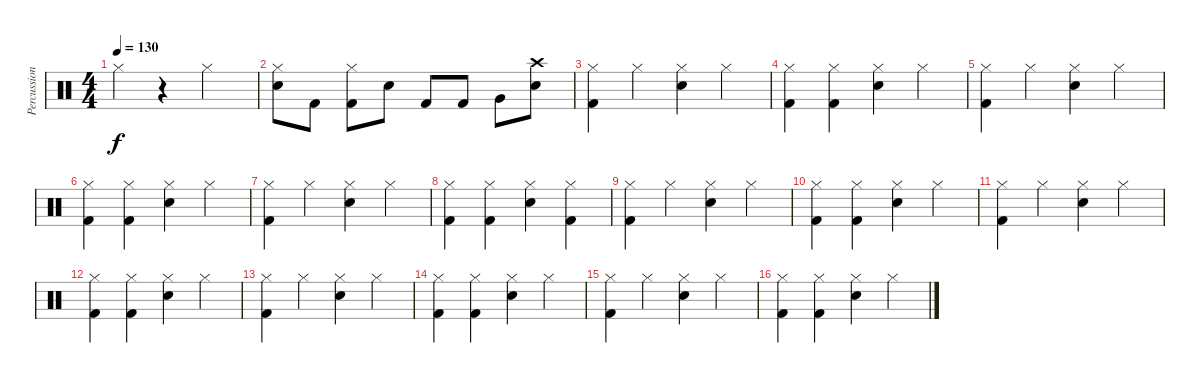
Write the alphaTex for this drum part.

\track ("Percussion" "Percussion") {instrument percussion}
\staff {score}
\articulation defaults
\ts (4 4)
\tempo 130
\clef neutral
\ks c "Hi-Hat (closed)".4{dy f}
r.4 "Hi-Hat (closed)".2 |
("Snare (hit) 2" "Hi-Hat (closed)").8 "Kick (hit) 2".8 ("Hi-Hat (closed)" "Kick (hit) 2").8 "Snare (hit) 2".8 "Kick (hit) 2".8 "Kick (hit) 2".8 "Very Low Tom (hit)".8 ("Snare (hit) 2" "Crash high (hit)").8 |
("Hi-Hat (closed)" "Kick (hit) 2").4 "Hi-Hat (closed)".4 ("Snare (hit) 2" "Hi-Hat (closed)").4 "Hi-Hat (closed)".4 |
("Hi-Hat (closed)" "Kick (hit) 2").4 ("Hi-Hat (closed)" "Kick (hit) 2").4 ("Hi-Hat (closed)" "Snare (hit) 2").4 "Hi-Hat (closed)".4 |
("Hi-Hat (closed)" "Kick (hit) 2").4 "Hi-Hat (closed)".4 ("Snare (hit) 2" "Hi-Hat (closed)").4 "Hi-Hat (closed)".4 |
("Hi-Hat (closed)" "Kick (hit) 2").4 ("Hi-Hat (closed)" "Kick (hit) 2").4 ("Hi-Hat (closed)" "Snare (hit) 2").4 "Hi-Hat (closed)".4 |
("Hi-Hat (closed)" "Kick (hit) 2").4 "Hi-Hat (closed)".4 ("Snare (hit) 2" "Hi-Hat (closed)").4 "Hi-Hat (closed)".4 |
("Hi-Hat (closed)" "Kick (hit) 2").4 ("Hi-Hat (closed)" "Kick (hit) 2").4 ("Hi-Hat (closed)" "Snare (hit) 2").4 ("Kick (hit) 2" "Hi-Hat (closed)").4 |
("Hi-Hat (closed)" "Kick (hit) 2").4 "Hi-Hat (closed)".4 ("Snare (hit) 2" "Hi-Hat (closed)").4 "Hi-Hat (closed)".4 |
("Hi-Hat (closed)" "Kick (hit) 2").4 ("Hi-Hat (closed)" "Kick (hit) 2").4 ("Hi-Hat (closed)" "Snare (hit) 2").4 "Hi-Hat (closed)".4 |
("Hi-Hat (closed)" "Kick (hit) 2").4 "Hi-Hat (closed)".4 ("Snare (hit) 2" "Hi-Hat (closed)").4 "Hi-Hat (closed)".4 |
("Hi-Hat (closed)" "Kick (hit) 2").4 ("Hi-Hat (closed)" "Kick (hit) 2").4 ("Hi-Hat (closed)" "Snare (hit) 2").4 "Hi-Hat (closed)".4 |
("Hi-Hat (closed)" "Kick (hit) 2").4 "Hi-Hat (closed)".4 ("Snare (hit) 2" "Hi-Hat (closed)").4 "Hi-Hat (closed)".4 |
("Hi-Hat (closed)" "Kick (hit) 2").4 ("Hi-Hat (closed)" "Kick (hit) 2").4 ("Hi-Hat (closed)" "Snare (hit) 2").4 "Hi-Hat (closed)".4 |
("Hi-Hat (closed)" "Kick (hit) 2").4 "Hi-Hat (closed)".4 ("Snare (hit) 2" "Hi-Hat (closed)").4 "Hi-Hat (closed)".4 |
("Hi-Hat (closed)" "Kick (hit) 2").4 ("Hi-Hat (closed)" "Kick (hit) 2").4 ("Hi-Hat (closed)" "Snare (hit) 2").4 "Hi-Hat (closed)".4
